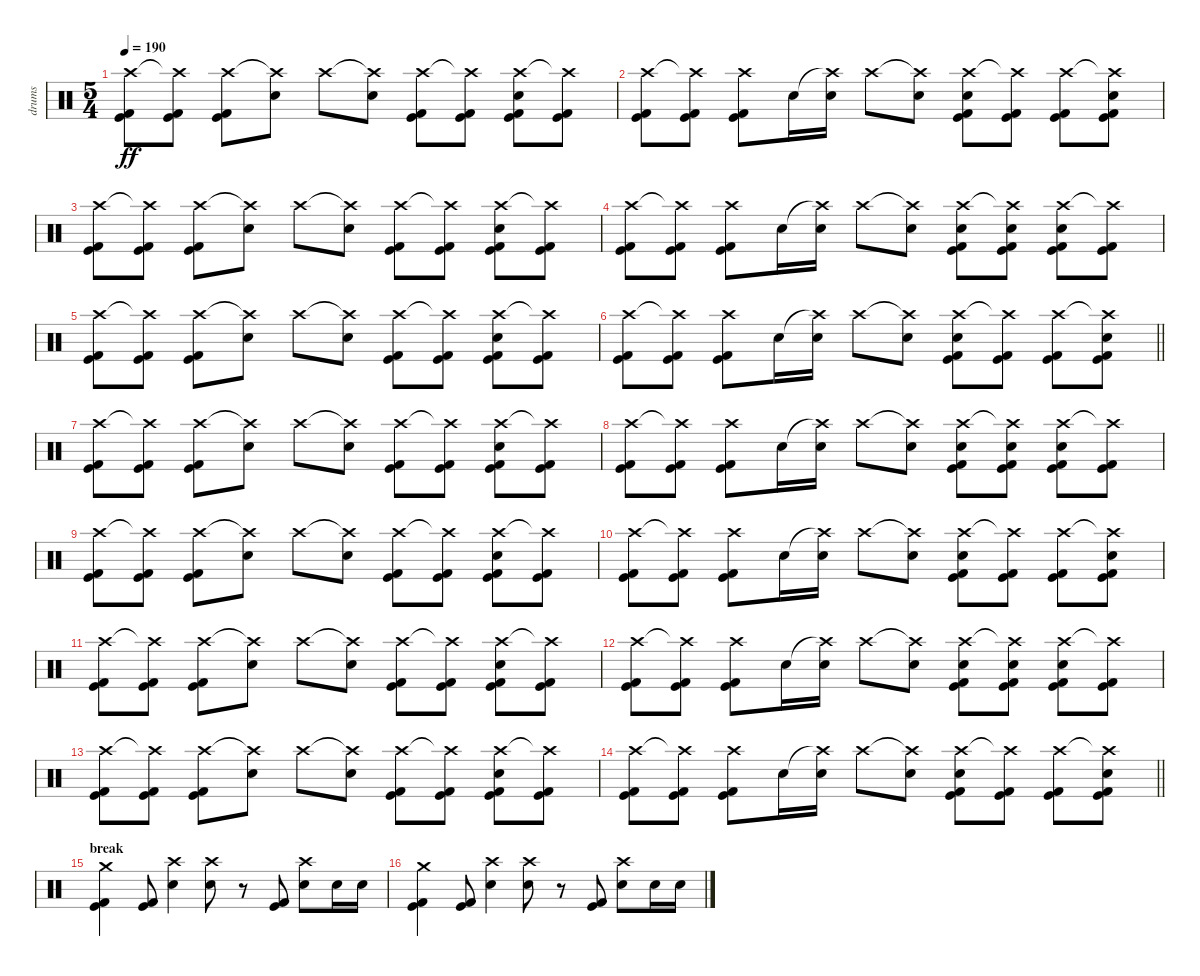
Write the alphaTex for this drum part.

\track ("drums" "drums") {instrument percussion}
\staff {score}
\articulation defaults
\ts (5 4)
\tempo 190
\clef neutral
\ks c
("Crash high (hit)" "Kick (hit) 2" "Kick (hit)").8{dy ff} ("Crash high (hit)"{t} "Kick (hit) 2" "Kick (hit)").8 ("Crash high (hit)" "Kick (hit) 2" "Kick (hit)").8 ("Crash high (hit)"{t} "Electric Snare (hit)").8 "Crash high (hit)".8 ("Crash high (hit)"{t} "Electric Snare (hit)").8 ("Crash high (hit)" "Kick (hit) 2" "Kick (hit)").8 ("Crash high (hit)"{t} "Kick (hit) 2" "Kick (hit)").8 ("Crash high (hit)" "Electric Snare (hit)" "Kick (hit) 2" "Kick (hit)").8 ("Crash high (hit)"{t} "Kick (hit) 2" "Kick (hit)").8 |
("Crash high (hit)" "Kick (hit) 2" "Kick (hit)").8 ("Crash high (hit)"{t} "Kick (hit) 2" "Kick (hit)").8 ("Crash high (hit)" "Kick (hit) 2" "Kick (hit)").8 "Electric Snare (hit)".16 ("Crash high (hit)"{t} "Electric Snare (hit)").16 "Crash high (hit)".8 ("Crash high (hit)"{t} "Electric Snare (hit)").8 ("Crash high (hit)" "Electric Snare (hit)" "Kick (hit) 2" "Kick (hit)").8 ("Crash high (hit)"{t} "Kick (hit) 2" "Kick (hit)").8 ("Crash high (hit)" "Kick (hit) 2" "Kick (hit)").8 ("Crash high (hit)"{t} "Electric Snare (hit)" "Kick (hit) 2" "Kick (hit)").8 |
("Crash high (hit)" "Kick (hit) 2" "Kick (hit)").8 ("Crash high (hit)"{t} "Kick (hit) 2" "Kick (hit)").8 ("Crash high (hit)" "Kick (hit) 2" "Kick (hit)").8 ("Crash high (hit)"{t} "Electric Snare (hit)").8 "Crash high (hit)".8 ("Crash high (hit)"{t} "Electric Snare (hit)").8 ("Crash high (hit)" "Kick (hit) 2" "Kick (hit)").8 ("Crash high (hit)"{t} "Kick (hit) 2" "Kick (hit)").8 ("Crash high (hit)" "Electric Snare (hit)" "Kick (hit) 2" "Kick (hit)").8 ("Crash high (hit)"{t} "Kick (hit) 2" "Kick (hit)").8 |
("Crash high (hit)" "Kick (hit) 2" "Kick (hit)").8 ("Crash high (hit)"{t} "Kick (hit) 2" "Kick (hit)").8 ("Crash high (hit)" "Kick (hit) 2" "Kick (hit)").8 "Electric Snare (hit)".16 ("Crash high (hit)"{t} "Electric Snare (hit)").16 "Crash high (hit)".8 ("Crash high (hit)"{t} "Electric Snare (hit)").8 ("Crash high (hit)" "Electric Snare (hit)" "Kick (hit) 2" "Kick (hit)").8 ("Crash high (hit)"{t} "Electric Snare (hit)" "Kick (hit) 2" "Kick (hit)").8 ("Crash high (hit)" "Electric Snare (hit)" "Kick (hit) 2" "Kick (hit)").8 ("Crash high (hit)"{t} "Kick (hit) 2" "Kick (hit)").8 |
("Crash high (hit)" "Kick (hit) 2" "Kick (hit)").8 ("Crash high (hit)"{t} "Kick (hit) 2" "Kick (hit)").8 ("Crash high (hit)" "Kick (hit) 2" "Kick (hit)").8 ("Crash high (hit)"{t} "Electric Snare (hit)").8 "Crash high (hit)".8 ("Crash high (hit)"{t} "Electric Snare (hit)").8 ("Crash high (hit)" "Kick (hit) 2" "Kick (hit)").8 ("Crash high (hit)"{t} "Kick (hit) 2" "Kick (hit)").8 ("Crash high (hit)" "Electric Snare (hit)" "Kick (hit) 2" "Kick (hit)").8 ("Crash high (hit)"{t} "Kick (hit) 2" "Kick (hit)").8 |
\barLineRight lightlight
("Crash high (hit)" "Kick (hit) 2" "Kick (hit)").8 ("Crash high (hit)"{t} "Kick (hit) 2" "Kick (hit)").8 ("Crash high (hit)" "Kick (hit) 2" "Kick (hit)").8 "Electric Snare (hit)".16 ("Crash high (hit)"{t} "Electric Snare (hit)").16 "Crash high (hit)".8 ("Crash high (hit)"{t} "Electric Snare (hit)").8 ("Crash high (hit)" "Electric Snare (hit)" "Kick (hit) 2" "Kick (hit)").8 ("Crash high (hit)"{t} "Kick (hit) 2" "Kick (hit)").8 ("Crash high (hit)" "Kick (hit) 2" "Kick (hit)").8 ("Crash high (hit)"{t} "Electric Snare (hit)" "Kick (hit) 2" "Kick (hit)").8 |
("Crash high (hit)" "Kick (hit) 2" "Kick (hit)").8 ("Crash high (hit)"{t} "Kick (hit) 2" "Kick (hit)").8 ("Crash high (hit)" "Kick (hit) 2" "Kick (hit)").8 ("Crash high (hit)"{t} "Electric Snare (hit)").8 "Crash high (hit)".8 ("Crash high (hit)"{t} "Electric Snare (hit)").8 ("Crash high (hit)" "Kick (hit) 2" "Kick (hit)").8 ("Crash high (hit)"{t} "Kick (hit) 2" "Kick (hit)").8 ("Crash high (hit)" "Electric Snare (hit)" "Kick (hit) 2" "Kick (hit)").8 ("Crash high (hit)"{t} "Kick (hit) 2" "Kick (hit)").8 |
("Crash high (hit)" "Kick (hit) 2" "Kick (hit)").8 ("Crash high (hit)"{t} "Kick (hit) 2" "Kick (hit)").8 ("Crash high (hit)" "Kick (hit) 2" "Kick (hit)").8 "Electric Snare (hit)".16 ("Crash high (hit)"{t} "Electric Snare (hit)").16 "Crash high (hit)".8 ("Crash high (hit)"{t} "Electric Snare (hit)").8 ("Crash high (hit)" "Electric Snare (hit)" "Kick (hit) 2" "Kick (hit)").8 ("Crash high (hit)"{t} "Electric Snare (hit)" "Kick (hit) 2" "Kick (hit)").8 ("Crash high (hit)" "Electric Snare (hit)" "Kick (hit) 2" "Kick (hit)").8 ("Crash high (hit)"{t} "Kick (hit) 2" "Kick (hit)").8 |
("Crash high (hit)" "Kick (hit) 2" "Kick (hit)").8 ("Crash high (hit)"{t} "Kick (hit) 2" "Kick (hit)").8 ("Crash high (hit)" "Kick (hit) 2" "Kick (hit)").8 ("Crash high (hit)"{t} "Electric Snare (hit)").8 "Crash high (hit)".8 ("Crash high (hit)"{t} "Electric Snare (hit)").8 ("Crash high (hit)" "Kick (hit) 2" "Kick (hit)").8 ("Crash high (hit)"{t} "Kick (hit) 2" "Kick (hit)").8 ("Crash high (hit)" "Electric Snare (hit)" "Kick (hit) 2" "Kick (hit)").8 ("Crash high (hit)"{t} "Kick (hit) 2" "Kick (hit)").8 |
("Crash high (hit)" "Kick (hit) 2" "Kick (hit)").8 ("Crash high (hit)"{t} "Kick (hit) 2" "Kick (hit)").8 ("Crash high (hit)" "Kick (hit) 2" "Kick (hit)").8 "Electric Snare (hit)".16 ("Crash high (hit)"{t} "Electric Snare (hit)").16 "Crash high (hit)".8 ("Crash high (hit)"{t} "Electric Snare (hit)").8 ("Crash high (hit)" "Electric Snare (hit)" "Kick (hit) 2" "Kick (hit)").8 ("Crash high (hit)"{t} "Kick (hit) 2" "Kick (hit)").8 ("Crash high (hit)" "Kick (hit) 2" "Kick (hit)").8 ("Crash high (hit)"{t} "Electric Snare (hit)" "Kick (hit) 2" "Kick (hit)").8 |
("Crash high (hit)" "Kick (hit) 2" "Kick (hit)").8 ("Crash high (hit)"{t} "Kick (hit) 2" "Kick (hit)").8 ("Crash high (hit)" "Kick (hit) 2" "Kick (hit)").8 ("Crash high (hit)"{t} "Electric Snare (hit)").8 "Crash high (hit)".8 ("Crash high (hit)"{t} "Electric Snare (hit)").8 ("Crash high (hit)" "Kick (hit) 2" "Kick (hit)").8 ("Crash high (hit)"{t} "Kick (hit) 2" "Kick (hit)").8 ("Crash high (hit)" "Electric Snare (hit)" "Kick (hit) 2" "Kick (hit)").8 ("Crash high (hit)"{t} "Kick (hit) 2" "Kick (hit)").8 |
("Crash high (hit)" "Kick (hit) 2" "Kick (hit)").8 ("Crash high (hit)"{t} "Kick (hit) 2" "Kick (hit)").8 ("Crash high (hit)" "Kick (hit) 2" "Kick (hit)").8 "Electric Snare (hit)".16 ("Crash high (hit)"{t} "Electric Snare (hit)").16 "Crash high (hit)".8 ("Crash high (hit)"{t} "Electric Snare (hit)").8 ("Crash high (hit)" "Electric Snare (hit)" "Kick (hit) 2" "Kick (hit)").8 ("Crash high (hit)"{t} "Electric Snare (hit)" "Kick (hit) 2" "Kick (hit)").8 ("Crash high (hit)" "Electric Snare (hit)" "Kick (hit) 2" "Kick (hit)").8 ("Crash high (hit)"{t} "Kick (hit) 2" "Kick (hit)").8 |
("Crash high (hit)" "Kick (hit) 2" "Kick (hit)").8 ("Crash high (hit)"{t} "Kick (hit) 2" "Kick (hit)").8 ("Crash high (hit)" "Kick (hit) 2" "Kick (hit)").8 ("Crash high (hit)"{t} "Electric Snare (hit)").8 "Crash high (hit)".8 ("Crash high (hit)"{t} "Electric Snare (hit)").8 ("Crash high (hit)" "Kick (hit) 2" "Kick (hit)").8 ("Crash high (hit)"{t} "Kick (hit) 2" "Kick (hit)").8 ("Crash high (hit)" "Electric Snare (hit)" "Kick (hit) 2" "Kick (hit)").8 ("Crash high (hit)"{t} "Kick (hit) 2" "Kick (hit)").8 |
\barLineRight lightlight
("Crash high (hit)" "Kick (hit) 2" "Kick (hit)").8 ("Crash high (hit)"{t} "Kick (hit) 2" "Kick (hit)").8 ("Crash high (hit)" "Kick (hit) 2" "Kick (hit)").8 "Electric Snare (hit)".16 ("Crash high (hit)"{t} "Electric Snare (hit)").16 "Crash high (hit)".8 ("Crash high (hit)"{t} "Electric Snare (hit)").8 ("Crash high (hit)" "Electric Snare (hit)" "Kick (hit) 2" "Kick (hit)").8 ("Crash high (hit)"{t} "Kick (hit) 2" "Kick (hit)").8 ("Crash high (hit)" "Kick (hit) 2" "Kick (hit)").8 ("Crash high (hit)"{t} "Electric Snare (hit)" "Kick (hit) 2" "Kick (hit)").8 |
\section ("" "break")
("Crash medium (hit)" "Kick (hit) 2" "Kick (hit)").4 ("Kick (hit) 2" "Kick (hit)").8 ("Crash high (hit)" "Electric Snare (hit)").4 ("Crash high (hit)" "Electric Snare (hit)").8 r.8 ("Kick (hit) 2" "Kick (hit)").8 ("Crash high (hit)" "Electric Snare (hit)").8 "Electric Snare (hit)".16 "Electric Snare (hit)".16 |
("Crash medium (hit)" "Kick (hit) 2" "Kick (hit)").4 ("Kick (hit) 2" "Kick (hit)").8 ("Crash high (hit)" "Electric Snare (hit)").4 ("Crash high (hit)" "Electric Snare (hit)").8 r.8 ("Kick (hit) 2" "Kick (hit)").8 ("Crash high (hit)" "Electric Snare (hit)").8 "Electric Snare (hit)".16 "Electric Snare (hit)".16
